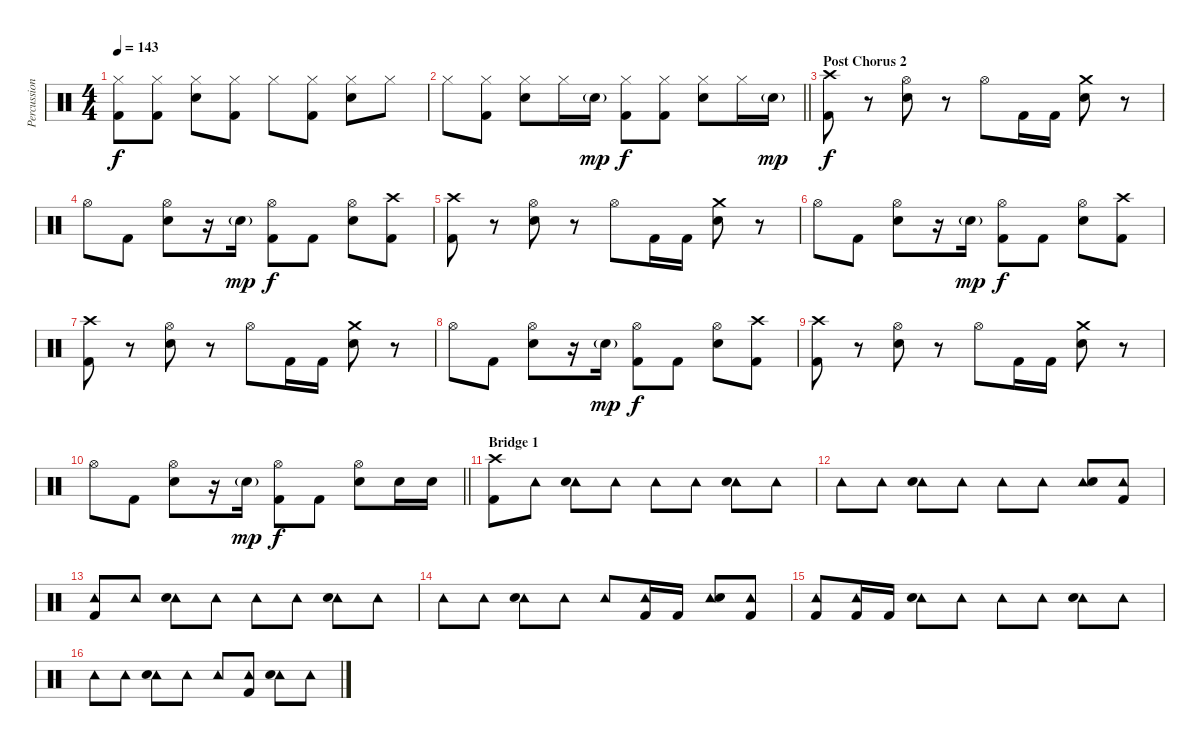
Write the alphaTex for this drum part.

\track ("Percussion" "Percussion") {instrument percussion}
\staff {score}
\articulation defaults
\ts (4 4)
\tempo 143
\clef neutral
\ks c
("Hi-Hat (closed)" "Kick (hit) 2").8{dy f} ("Hi-Hat (closed)" "Kick (hit) 2").8 ("Hi-Hat (closed)" "Snare (hit) 2").8 ("Hi-Hat (closed)" "Kick (hit) 2").8 "Hi-Hat (closed)".8 ("Hi-Hat (closed)" "Kick (hit) 2").8 ("Hi-Hat (closed)" "Snare (hit) 2").8 "Hi-Hat (closed)".8 |
\barLineRight lightlight "Hi-Hat (closed)".8
("Hi-Hat (closed)" "Kick (hit) 2").8 ("Hi-Hat (closed)" "Snare (hit) 2").8 "Hi-Hat (closed)".16 "Snare (hit) 2"{g}.16{dy mp} ("Hi-Hat (closed)" "Kick (hit) 2").8{dy f} ("Hi-Hat (closed)" "Kick (hit) 2").8 ("Hi-Hat (closed)" "Snare (hit) 2").8 "Hi-Hat (closed)".16 "Snare (hit) 2"{g}.16{dy mp} |
\section ("" "Post Chorus 2")
("Crash high (hit)" "Kick (hit) 2").8{dy f} r.8 ("Hi-Hat (open)" "Snare (hit) 2").8 r.8 "Hi-Hat (open)".8 "Kick (hit) 2".16 "Kick (hit) 2".16 ("Crash medium (hit)" "Snare (hit) 2").8 r.8 |
"Hi-Hat (open)".8 "Kick (hit) 2".8 ("Hi-Hat (open)" "Snare (hit) 2").8 r.16 "Snare (hit) 2"{g}.16{dy mp} ("Hi-Hat (open)" "Kick (hit) 2").8{dy f} "Kick (hit) 2".8 ("Hi-Hat (open)" "Snare (hit) 2").8 ("Crash high (hit)" "Kick (hit) 2").8 |
("Crash high (hit)" "Kick (hit) 2").8 r.8 ("Hi-Hat (open)" "Snare (hit) 2").8 r.8 "Hi-Hat (open)".8 "Kick (hit) 2".16 "Kick (hit) 2".16 ("Crash medium (hit)" "Snare (hit) 2").8 r.8 |
"Hi-Hat (open)".8 "Kick (hit) 2".8 ("Hi-Hat (open)" "Snare (hit) 2").8 r.16 "Snare (hit) 2"{g}.16{dy mp} ("Hi-Hat (open)" "Kick (hit) 2").8{dy f} "Kick (hit) 2".8 ("Hi-Hat (open)" "Snare (hit) 2").8 ("Crash high (hit)" "Kick (hit) 2").8 |
("Crash high (hit)" "Kick (hit) 2").8 r.8 ("Hi-Hat (open)" "Snare (hit) 2").8 r.8 "Hi-Hat (open)".8 "Kick (hit) 2".16 "Kick (hit) 2".16 ("Crash medium (hit)" "Snare (hit) 2").8 r.8 |
"Hi-Hat (open)".8 "Kick (hit) 2".8 ("Hi-Hat (open)" "Snare (hit) 2").8 r.16 "Snare (hit) 2"{g}.16{dy mp} ("Hi-Hat (open)" "Kick (hit) 2").8{dy f} "Kick (hit) 2".8 ("Hi-Hat (open)" "Snare (hit) 2").8 ("Crash high (hit)" "Kick (hit) 2").8 |
("Crash high (hit)" "Kick (hit) 2").8 r.8 ("Hi-Hat (open)" "Snare (hit) 2").8 r.8 "Hi-Hat (open)".8 "Kick (hit) 2".16 "Kick (hit) 2".16 ("Crash medium (hit)" "Snare (hit) 2").8 r.8 |
\barLineRight lightlight "Hi-Hat (open)".8 "Kick (hit) 2".8
("Hi-Hat (open)" "Snare (hit) 2").8 r.16 "Snare (hit) 2"{g}.16{dy mp} ("Hi-Hat (open)" "Kick (hit) 2").8{dy f} "Kick (hit) 2".8 ("Hi-Hat (open)" "Snare (hit) 2").8 "Snare (hit) 2".16 "Snare (hit) 2".16 |
\section ("" "Bridge 1")
("Crash high (hit)" "Kick (hit) 2").8 "Tambourine (hit)".8 ("Tambourine (hit)" "Snare (hit) 2").8 "Tambourine (hit)".8 "Tambourine (hit)".8 "Tambourine (hit)".8 ("Tambourine (hit)" "Snare (hit) 2").8 "Tambourine (hit)".8 |
"Tambourine (hit)".8 "Tambourine (hit)".8 ("Tambourine (hit)" "Snare (hit) 2").8 "Tambourine (hit)".8 "Tambourine (hit)".8 "Tambourine (hit)".8 ("Tambourine (hit)" "Snare (hit) 2").8 ("Tambourine (hit)" "Kick (hit) 2").8 |
("Tambourine (hit)" "Kick (hit) 2").8 "Tambourine (hit)".8 ("Tambourine (hit)" "Snare (hit) 2").8 "Tambourine (hit)".8 "Tambourine (hit)".8 "Tambourine (hit)".8 ("Tambourine (hit)" "Snare (hit) 2").8 "Tambourine (hit)".8 |
"Tambourine (hit)".8 "Tambourine (hit)".8 ("Tambourine (hit)" "Snare (hit) 2").8 "Tambourine (hit)".8 "Tambourine (hit)".8 ("Tambourine (hit)" "Kick (hit) 2").16 "Kick (hit) 2".16 ("Tambourine (hit)" "Snare (hit) 2").8 ("Tambourine (hit)" "Kick (hit) 2").8 |
("Tambourine (hit)" "Kick (hit) 2").8 ("Tambourine (hit)" "Kick (hit) 2").16 "Kick (hit) 2".16 ("Tambourine (hit)" "Snare (hit) 2").8 "Tambourine (hit)".8 "Tambourine (hit)".8 "Tambourine (hit)".8 ("Tambourine (hit)" "Snare (hit) 2").8 "Tambourine (hit)".8 |
"Tambourine (hit)".8 "Tambourine (hit)".8 ("Tambourine (hit)" "Snare (hit) 2").8 "Tambourine (hit)".8 "Tambourine (hit)".8 ("Tambourine (hit)" "Kick (hit) 2").8 ("Tambourine (hit)" "Snare (hit) 2").8 "Tambourine (hit)".8
